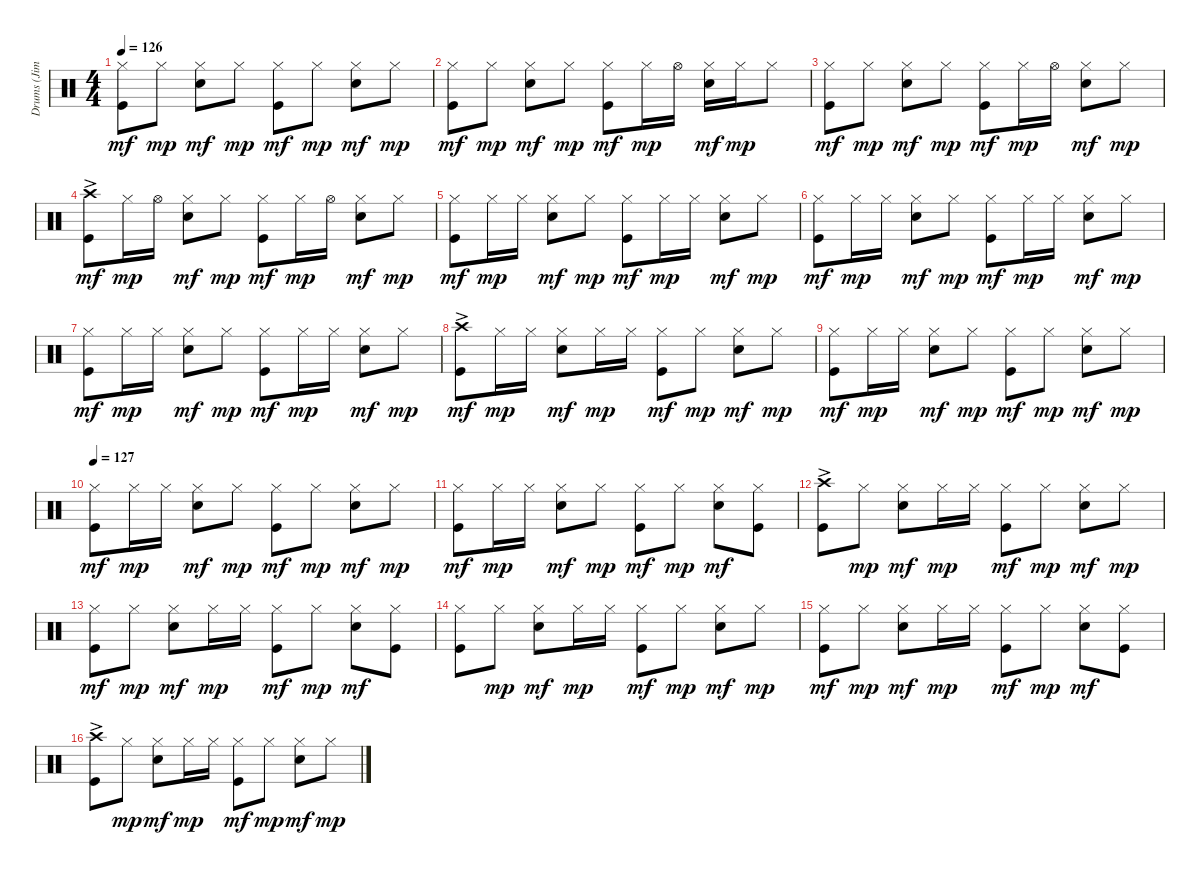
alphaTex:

\track ("Drums (Jim Keltner)" "Drums (Jim") {instrument percussion}
\staff {score}
\articulation defaults
\ts (4 4)
\tempo 126
\clef neutral
\ks c
("Hi-Hat (closed)" "Kick (hit)").8{dy mf} "Hi-Hat (closed)".8{dy mp} ("Hi-Hat (closed)" "Snare (hit) 2").8{dy mf} "Hi-Hat (closed)".8{dy mp} ("Hi-Hat (closed)" "Kick (hit)").8{dy mf} "Hi-Hat (closed)".8{dy mp} ("Hi-Hat (closed)" "Snare (hit) 2").8{dy mf} "Hi-Hat (closed)".8{dy mp} |
("Hi-Hat (closed)" "Kick (hit)").8{dy mf} "Hi-Hat (closed)".8{dy mp} ("Hi-Hat (closed)" "Snare (hit) 2").8{dy mf} "Hi-Hat (closed)".8{dy mp} ("Hi-Hat (closed)" "Kick (hit)").8{dy mf} "Hi-Hat (closed)".16{dy mp} "Hi-Hat (open)".16 ("Hi-Hat (closed)" "Snare (hit) 2").16{dy mf} "Hi-Hat (closed)".16{dy mp} "Hi-Hat (closed)".8 |
("Hi-Hat (closed)" "Kick (hit)").8{dy mf} "Hi-Hat (closed)".8{dy mp} ("Hi-Hat (closed)" "Snare (hit) 2").8{dy mf} "Hi-Hat (closed)".8{dy mp} ("Hi-Hat (closed)" "Kick (hit)").8{dy mf} "Hi-Hat (closed)".16{dy mp} "Hi-Hat (open)".16 ("Hi-Hat (closed)" "Snare (hit) 2").8{dy mf} "Hi-Hat (closed)".8{dy mp} |
("Crash high (hit)"{ac} "Kick (hit)").8{dy mf} "Hi-Hat (closed)".16{dy mp} "Hi-Hat (open)".16 ("Hi-Hat (closed)" "Snare (hit) 2").8{dy mf} "Hi-Hat (closed)".8{dy mp} ("Hi-Hat (closed)" "Kick (hit)").8{dy mf} "Hi-Hat (closed)".16{dy mp} "Hi-Hat (open)".16 ("Hi-Hat (closed)" "Snare (hit) 2").8{dy mf} "Hi-Hat (closed)".8{dy mp} |
("Hi-Hat (closed)" "Kick (hit)").8{dy mf} "Hi-Hat (closed)".16{dy mp} "Hi-Hat (closed)".16 ("Hi-Hat (closed)" "Snare (hit) 2").8{dy mf} "Hi-Hat (closed)".8{dy mp} ("Hi-Hat (closed)" "Kick (hit)").8{dy mf} "Hi-Hat (closed)".16{dy mp} "Hi-Hat (closed)".16 ("Hi-Hat (closed)" "Snare (hit) 2").8{dy mf} "Hi-Hat (closed)".8{dy mp} |
("Hi-Hat (closed)" "Kick (hit)").8{dy mf} "Hi-Hat (closed)".16{dy mp} "Hi-Hat (closed)".16 ("Hi-Hat (closed)" "Snare (hit) 2").8{dy mf} "Hi-Hat (closed)".8{dy mp} ("Hi-Hat (closed)" "Kick (hit)").8{dy mf} "Hi-Hat (closed)".16{dy mp} "Hi-Hat (closed)".16 ("Hi-Hat (closed)" "Snare (hit) 2").8{dy mf} "Hi-Hat (closed)".8{dy mp} |
("Hi-Hat (closed)" "Kick (hit)").8{dy mf} "Hi-Hat (closed)".16{dy mp} "Hi-Hat (closed)".16 ("Hi-Hat (closed)" "Snare (hit) 2").8{dy mf} "Hi-Hat (closed)".8{dy mp} ("Hi-Hat (closed)" "Kick (hit)").8{dy mf} "Hi-Hat (closed)".16{dy mp} "Hi-Hat (closed)".16 ("Hi-Hat (closed)" "Snare (hit) 2").8{dy mf} "Hi-Hat (closed)".8{dy mp} |
("Crash high (hit)"{ac} "Kick (hit)").8{dy mf} "Hi-Hat (closed)".16{dy mp} "Hi-Hat (closed)".16 ("Hi-Hat (closed)" "Snare (hit) 2").8{dy mf} "Hi-Hat (closed)".16{dy mp} "Hi-Hat (closed)".16 ("Hi-Hat (closed)" "Kick (hit)").8{dy mf} "Hi-Hat (closed)".8{dy mp} ("Hi-Hat (closed)" "Snare (hit) 2").8{dy mf} "Hi-Hat (closed)".8{dy mp} |
("Hi-Hat (closed)" "Kick (hit)").8{dy mf} "Hi-Hat (closed)".16{dy mp} "Hi-Hat (closed)".16 ("Hi-Hat (closed)" "Snare (hit) 2").8{dy mf} "Hi-Hat (closed)".8{dy mp} ("Hi-Hat (closed)" "Kick (hit)").8{dy mf} "Hi-Hat (closed)".8{dy mp} ("Hi-Hat (closed)" "Snare (hit) 2").8{dy mf} "Hi-Hat (closed)".8{dy mp} |
\tempo 127
("Hi-Hat (closed)" "Kick (hit)").8{dy mf} "Hi-Hat (closed)".16{dy mp} "Hi-Hat (closed)".16 ("Hi-Hat (closed)" "Snare (hit) 2").8{dy mf} "Hi-Hat (closed)".8{dy mp} ("Hi-Hat (closed)" "Kick (hit)").8{dy mf} "Hi-Hat (closed)".8{dy mp} ("Hi-Hat (closed)" "Snare (hit) 2").8{dy mf} "Hi-Hat (closed)".8{dy mp} |
("Hi-Hat (closed)" "Kick (hit)").8{dy mf} "Hi-Hat (closed)".16{dy mp} "Hi-Hat (closed)".16 ("Hi-Hat (closed)" "Snare (hit) 2").8{dy mf} "Hi-Hat (closed)".8{dy mp} ("Hi-Hat (closed)" "Kick (hit)").8{dy mf} "Hi-Hat (closed)".8{dy mp} ("Hi-Hat (closed)" "Snare (hit) 2").8{dy mf} ("Hi-Hat (closed)" "Kick (hit)").8 |
("Crash high (hit)"{ac} "Kick (hit)").8 "Hi-Hat (closed)".8{dy mp} ("Hi-Hat (closed)" "Snare (hit) 2").8{dy mf} "Hi-Hat (closed)".16{dy mp} "Hi-Hat (closed)".16 ("Hi-Hat (closed)" "Kick (hit)").8{dy mf} "Hi-Hat (closed)".8{dy mp} ("Hi-Hat (closed)" "Snare (hit) 2").8{dy mf} "Hi-Hat (closed)".8{dy mp} |
("Hi-Hat (closed)" "Kick (hit)").8{dy mf} "Hi-Hat (closed)".8{dy mp} ("Hi-Hat (closed)" "Snare (hit) 2").8{dy mf} "Hi-Hat (closed)".16{dy mp} "Hi-Hat (closed)".16 ("Hi-Hat (closed)" "Kick (hit)").8{dy mf} "Hi-Hat (closed)".8{dy mp} ("Hi-Hat (closed)" "Snare (hit) 2").8{dy mf} ("Hi-Hat (closed)" "Kick (hit)").8 |
("Hi-Hat (closed)" "Kick (hit)").8 "Hi-Hat (closed)".8{dy mp} ("Hi-Hat (closed)" "Snare (hit) 2").8{dy mf} "Hi-Hat (closed)".16{dy mp} "Hi-Hat (closed)".16 ("Hi-Hat (closed)" "Kick (hit)").8{dy mf} "Hi-Hat (closed)".8{dy mp} ("Hi-Hat (closed)" "Snare (hit) 2").8{dy mf} "Hi-Hat (closed)".8{dy mp} |
("Hi-Hat (closed)" "Kick (hit)").8{dy mf} "Hi-Hat (closed)".8{dy mp} ("Hi-Hat (closed)" "Snare (hit) 2").8{dy mf} "Hi-Hat (closed)".16{dy mp} "Hi-Hat (closed)".16 ("Hi-Hat (closed)" "Kick (hit)").8{dy mf} "Hi-Hat (closed)".8{dy mp} ("Hi-Hat (closed)" "Snare (hit) 2").8{dy mf} ("Hi-Hat (closed)" "Kick (hit)").8 |
("Crash high (hit)"{ac} "Kick (hit)").8 "Hi-Hat (closed)".8{dy mp} ("Hi-Hat (closed)" "Snare (hit) 2").8{dy mf} "Hi-Hat (closed)".16{dy mp} "Hi-Hat (closed)".16 ("Hi-Hat (closed)" "Kick (hit)").8{dy mf} "Hi-Hat (closed)".8{dy mp} ("Hi-Hat (closed)" "Snare (hit) 2").8{dy mf} "Hi-Hat (closed)".8{dy mp}
